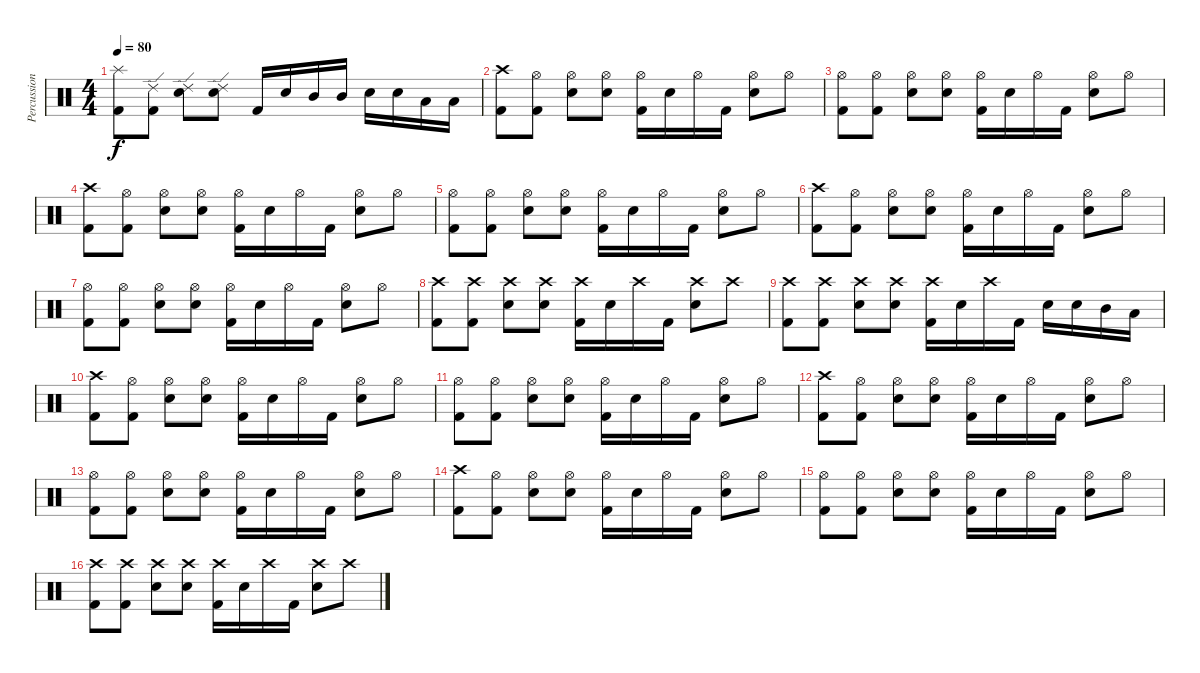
\track ("Percussion" "Percussion") {instrument percussion}
\staff {score}
\articulation defaults
\ts (4 4)
\tempo 80
\clef neutral
\ks c
("Kick (hit) 2" "Splash (hit)").8{dy f} ("Kick (hit) 2" "Ride (edge) 2").8 ("Electric Snare (hit)" "Ride (edge) 2").8 ("Electric Snare (hit)" "Ride (edge) 2").8 "Kick (hit) 2".16 "Electric Snare (hit)".16 "Mid Tom (hit)".16 "Mid Tom (hit)".16 "Electric Snare (hit)".16 "Electric Snare (hit)".16 "Low Tom (hit)".16 "Low Tom (hit)".16 |
("Kick (hit) 2" "Crash high (hit)").8 ("Kick (hit) 2" "Hi-Hat (open)").8 ("Electric Snare (hit)" "Hi-Hat (open)").8 ("Electric Snare (hit)" "Hi-Hat (open)").8 ("Kick (hit) 2" "Hi-Hat (open)").16 "Electric Snare (hit)".16 "Hi-Hat (open)".16 "Kick (hit) 2".16 ("Electric Snare (hit)" "Hi-Hat (open)").8 "Hi-Hat (open)".8 |
("Kick (hit) 2" "Hi-Hat (open)").8 ("Kick (hit) 2" "Hi-Hat (open)").8 ("Electric Snare (hit)" "Hi-Hat (open)").8 ("Electric Snare (hit)" "Hi-Hat (open)").8 ("Kick (hit) 2" "Hi-Hat (open)").16 "Electric Snare (hit)".16 "Hi-Hat (open)".16 "Kick (hit) 2".16 ("Electric Snare (hit)" "Hi-Hat (open)").8 "Hi-Hat (open)".8 |
("Kick (hit) 2" "Crash high (hit)").8 ("Kick (hit) 2" "Hi-Hat (open)").8 ("Electric Snare (hit)" "Hi-Hat (open)").8 ("Electric Snare (hit)" "Hi-Hat (open)").8 ("Kick (hit) 2" "Hi-Hat (open)").16 "Electric Snare (hit)".16 "Hi-Hat (open)".16 "Kick (hit) 2".16 ("Electric Snare (hit)" "Hi-Hat (open)").8 "Hi-Hat (open)".8 |
("Kick (hit) 2" "Hi-Hat (open)").8 ("Kick (hit) 2" "Hi-Hat (open)").8 ("Electric Snare (hit)" "Hi-Hat (open)").8 ("Electric Snare (hit)" "Hi-Hat (open)").8 ("Kick (hit) 2" "Hi-Hat (open)").16 "Electric Snare (hit)".16 "Hi-Hat (open)".16 "Kick (hit) 2".16 ("Electric Snare (hit)" "Hi-Hat (open)").8 "Hi-Hat (open)".8 |
("Kick (hit) 2" "Crash high (hit)").8 ("Kick (hit) 2" "Hi-Hat (open)").8 ("Electric Snare (hit)" "Hi-Hat (open)").8 ("Electric Snare (hit)" "Hi-Hat (open)").8 ("Kick (hit) 2" "Hi-Hat (open)").16 "Electric Snare (hit)".16 "Hi-Hat (open)".16 "Kick (hit) 2".16 ("Electric Snare (hit)" "Hi-Hat (open)").8 "Hi-Hat (open)".8 |
("Kick (hit) 2" "Hi-Hat (open)").8 ("Kick (hit) 2" "Hi-Hat (open)").8 ("Electric Snare (hit)" "Hi-Hat (open)").8 ("Electric Snare (hit)" "Hi-Hat (open)").8 ("Kick (hit) 2" "Hi-Hat (open)").16 "Electric Snare (hit)".16 "Hi-Hat (open)".16 "Kick (hit) 2".16 ("Electric Snare (hit)" "Hi-Hat (open)").8 "Hi-Hat (open)".8 |
("Kick (hit) 2" "Crash high (hit)").8 ("Kick (hit) 2" "Crash high (hit)").8 ("Electric Snare (hit)" "Crash high (hit)").8 ("Electric Snare (hit)" "Crash high (hit)").8 ("Kick (hit) 2" "Crash high (hit)").16 "Electric Snare (hit)".16 "Crash high (hit)".16 "Kick (hit) 2".16 ("Electric Snare (hit)" "Crash high (hit)").8 "Crash high (hit)".8 |
("Kick (hit) 2" "Crash high (hit)").8 ("Kick (hit) 2" "Crash high (hit)").8 ("Electric Snare (hit)" "Crash high (hit)").8 ("Electric Snare (hit)" "Crash high (hit)").8 ("Kick (hit) 2" "Crash high (hit)").16 "Electric Snare (hit)".16 "Crash high (hit)".16 "Kick (hit) 2".16 "Electric Snare (hit)".16 "Electric Snare (hit)".16 "Mid Tom (hit)".16 "Low Tom (hit)".16 |
("Kick (hit) 2" "Crash high (hit)").8 ("Kick (hit) 2" "Hi-Hat (open)").8 ("Electric Snare (hit)" "Hi-Hat (open)").8 ("Electric Snare (hit)" "Hi-Hat (open)").8 ("Kick (hit) 2" "Hi-Hat (open)").16 "Electric Snare (hit)".16 "Hi-Hat (open)".16 "Kick (hit) 2".16 ("Electric Snare (hit)" "Hi-Hat (open)").8 "Hi-Hat (open)".8 |
("Kick (hit) 2" "Hi-Hat (open)").8 ("Kick (hit) 2" "Hi-Hat (open)").8 ("Electric Snare (hit)" "Hi-Hat (open)").8 ("Electric Snare (hit)" "Hi-Hat (open)").8 ("Kick (hit) 2" "Hi-Hat (open)").16 "Electric Snare (hit)".16 "Hi-Hat (open)".16 "Kick (hit) 2".16 ("Electric Snare (hit)" "Hi-Hat (open)").8 "Hi-Hat (open)".8 |
("Kick (hit) 2" "Crash high (hit)").8 ("Kick (hit) 2" "Hi-Hat (open)").8 ("Electric Snare (hit)" "Hi-Hat (open)").8 ("Electric Snare (hit)" "Hi-Hat (open)").8 ("Kick (hit) 2" "Hi-Hat (open)").16 "Electric Snare (hit)".16 "Hi-Hat (open)".16 "Kick (hit) 2".16 ("Electric Snare (hit)" "Hi-Hat (open)").8 "Hi-Hat (open)".8 |
("Kick (hit) 2" "Hi-Hat (open)").8 ("Kick (hit) 2" "Hi-Hat (open)").8 ("Electric Snare (hit)" "Hi-Hat (open)").8 ("Electric Snare (hit)" "Hi-Hat (open)").8 ("Kick (hit) 2" "Hi-Hat (open)").16 "Electric Snare (hit)".16 "Hi-Hat (open)".16 "Kick (hit) 2".16 ("Electric Snare (hit)" "Hi-Hat (open)").8 "Hi-Hat (open)".8 |
("Kick (hit) 2" "Crash high (hit)").8 ("Kick (hit) 2" "Hi-Hat (open)").8 ("Electric Snare (hit)" "Hi-Hat (open)").8 ("Electric Snare (hit)" "Hi-Hat (open)").8 ("Kick (hit) 2" "Hi-Hat (open)").16 "Electric Snare (hit)".16 "Hi-Hat (open)".16 "Kick (hit) 2".16 ("Electric Snare (hit)" "Hi-Hat (open)").8 "Hi-Hat (open)".8 |
("Kick (hit) 2" "Hi-Hat (open)").8 ("Kick (hit) 2" "Hi-Hat (open)").8 ("Electric Snare (hit)" "Hi-Hat (open)").8 ("Electric Snare (hit)" "Hi-Hat (open)").8 ("Kick (hit) 2" "Hi-Hat (open)").16 "Electric Snare (hit)".16 "Hi-Hat (open)".16 "Kick (hit) 2".16 ("Electric Snare (hit)" "Hi-Hat (open)").8 "Hi-Hat (open)".8 |
("Kick (hit) 2" "Crash high (hit)").8 ("Kick (hit) 2" "Crash high (hit)").8 ("Electric Snare (hit)" "Crash high (hit)").8 ("Electric Snare (hit)" "Crash high (hit)").8 ("Kick (hit) 2" "Crash high (hit)").16 "Electric Snare (hit)".16 "Crash high (hit)".16 "Kick (hit) 2".16 ("Electric Snare (hit)" "Crash high (hit)").8 "Crash high (hit)".8
